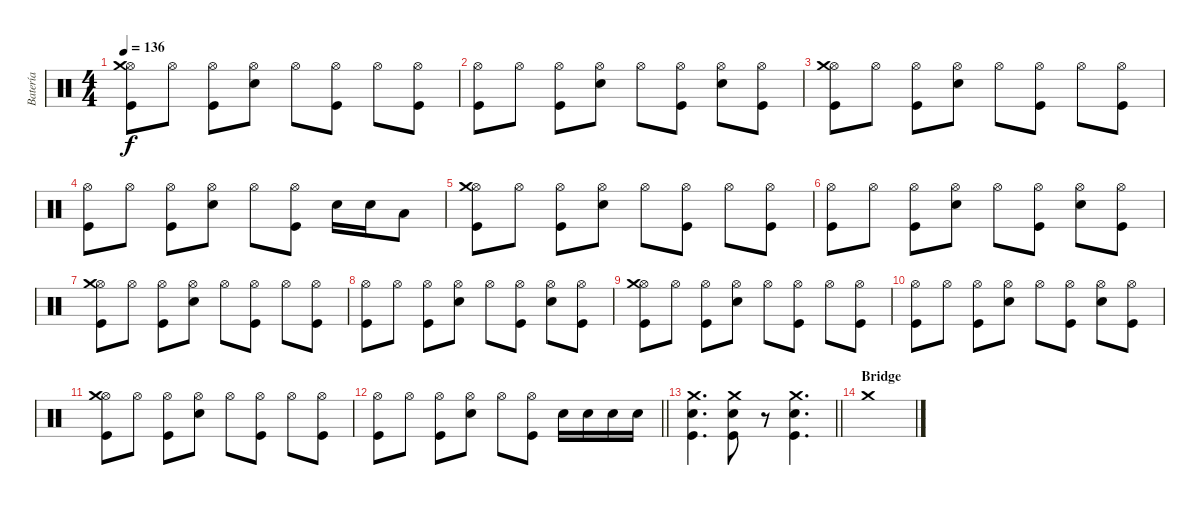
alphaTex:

\track ("Batería" "Batería") {instrument percussion}
\staff {score}
\articulation defaults
\ts (4 4)
\tempo 136
\clef neutral
\ks c
("Hi-Hat (open)" "Crash medium (hit)" "Kick (hit)").8{dy f} "Hi-Hat (open)".8 ("Hi-Hat (open)" "Kick (hit)").8 ("Hi-Hat (open)" "Snare (hit) 2").8 "Hi-Hat (open)".8 ("Hi-Hat (open)" "Kick (hit)").8 "Hi-Hat (open)".8 ("Hi-Hat (open)" "Kick (hit)").8 |
("Hi-Hat (open)" "Kick (hit)").8 "Hi-Hat (open)".8 ("Hi-Hat (open)" "Kick (hit)").8 ("Hi-Hat (open)" "Snare (hit) 2").8 "Hi-Hat (open)".8 ("Hi-Hat (open)" "Kick (hit)").8 ("Hi-Hat (open)" "Snare (hit) 2").8 ("Hi-Hat (open)" "Kick (hit)").8 |
("Hi-Hat (open)" "Crash medium (hit)" "Kick (hit)").8 "Hi-Hat (open)".8 ("Hi-Hat (open)" "Kick (hit)").8 ("Hi-Hat (open)" "Snare (hit) 2").8 "Hi-Hat (open)".8 ("Hi-Hat (open)" "Kick (hit)").8 "Hi-Hat (open)".8 ("Hi-Hat (open)" "Kick (hit)").8 |
("Hi-Hat (open)" "Kick (hit)").8 "Hi-Hat (open)".8 ("Hi-Hat (open)" "Kick (hit)").8 ("Hi-Hat (open)" "Snare (hit) 2").8 "Hi-Hat (open)".8 ("Hi-Hat (open)" "Kick (hit)").8 "Snare (hit) 2".16 "Snare (hit) 2".16 "Low Tom (hit)".8 |
("Hi-Hat (open)" "Crash medium (hit)" "Kick (hit)").8 "Hi-Hat (open)".8 ("Hi-Hat (open)" "Kick (hit)").8 ("Hi-Hat (open)" "Snare (hit) 2").8 "Hi-Hat (open)".8 ("Hi-Hat (open)" "Kick (hit)").8 "Hi-Hat (open)".8 ("Hi-Hat (open)" "Kick (hit)").8 |
("Hi-Hat (open)" "Kick (hit)").8 "Hi-Hat (open)".8 ("Hi-Hat (open)" "Kick (hit)").8 ("Hi-Hat (open)" "Snare (hit) 2").8 "Hi-Hat (open)".8 ("Hi-Hat (open)" "Kick (hit)").8 ("Hi-Hat (open)" "Snare (hit) 2").8 ("Hi-Hat (open)" "Kick (hit)").8 |
("Hi-Hat (open)" "Crash medium (hit)" "Kick (hit)").8 "Hi-Hat (open)".8 ("Hi-Hat (open)" "Kick (hit)").8 ("Hi-Hat (open)" "Snare (hit) 2").8 "Hi-Hat (open)".8 ("Hi-Hat (open)" "Kick (hit)").8 "Hi-Hat (open)".8 ("Hi-Hat (open)" "Kick (hit)").8 |
("Hi-Hat (open)" "Kick (hit)").8 "Hi-Hat (open)".8 ("Hi-Hat (open)" "Kick (hit)").8 ("Hi-Hat (open)" "Snare (hit) 2").8 "Hi-Hat (open)".8 ("Hi-Hat (open)" "Kick (hit)").8 ("Hi-Hat (open)" "Snare (hit) 2").8 ("Hi-Hat (open)" "Kick (hit)").8 |
("Hi-Hat (open)" "Crash medium (hit)" "Kick (hit)").8 "Hi-Hat (open)".8 ("Hi-Hat (open)" "Kick (hit)").8 ("Hi-Hat (open)" "Snare (hit) 2").8 "Hi-Hat (open)".8 ("Hi-Hat (open)" "Kick (hit)").8 "Hi-Hat (open)".8 ("Hi-Hat (open)" "Kick (hit)").8 |
("Hi-Hat (open)" "Kick (hit)").8 "Hi-Hat (open)".8 ("Hi-Hat (open)" "Kick (hit)").8 ("Hi-Hat (open)" "Snare (hit) 2").8 "Hi-Hat (open)".8 ("Hi-Hat (open)" "Kick (hit)").8 ("Hi-Hat (open)" "Snare (hit) 2").8 ("Hi-Hat (open)" "Kick (hit)").8 |
("Hi-Hat (open)" "Crash medium (hit)" "Kick (hit)").8 "Hi-Hat (open)".8 ("Hi-Hat (open)" "Kick (hit)").8 ("Hi-Hat (open)" "Snare (hit) 2").8 "Hi-Hat (open)".8 ("Hi-Hat (open)" "Kick (hit)").8 "Hi-Hat (open)".8 ("Hi-Hat (open)" "Kick (hit)").8 |
\barLineRight lightlight
("Hi-Hat (open)" "Kick (hit)").8 "Hi-Hat (open)".8 ("Hi-Hat (open)" "Kick (hit)").8 ("Hi-Hat (open)" "Snare (hit) 2").8 "Hi-Hat (open)".8 ("Hi-Hat (open)" "Kick (hit)").8 "Snare (hit) 2".16 "Snare (hit) 2".16 "Snare (hit) 2".16 "Snare (hit) 2".16 |
\barLineRight lightlight
("Crash medium (hit)" "Snare (hit) 2" "Kick (hit)").4{d} ("Crash medium (hit)" "Snare (hit) 2" "Kick (hit)").8 r.8 ("Crash medium (hit)" "Snare (hit) 2" "Kick (hit)").4{d} |
\section ("" "Bridge")
"Crash medium (hit)".1
